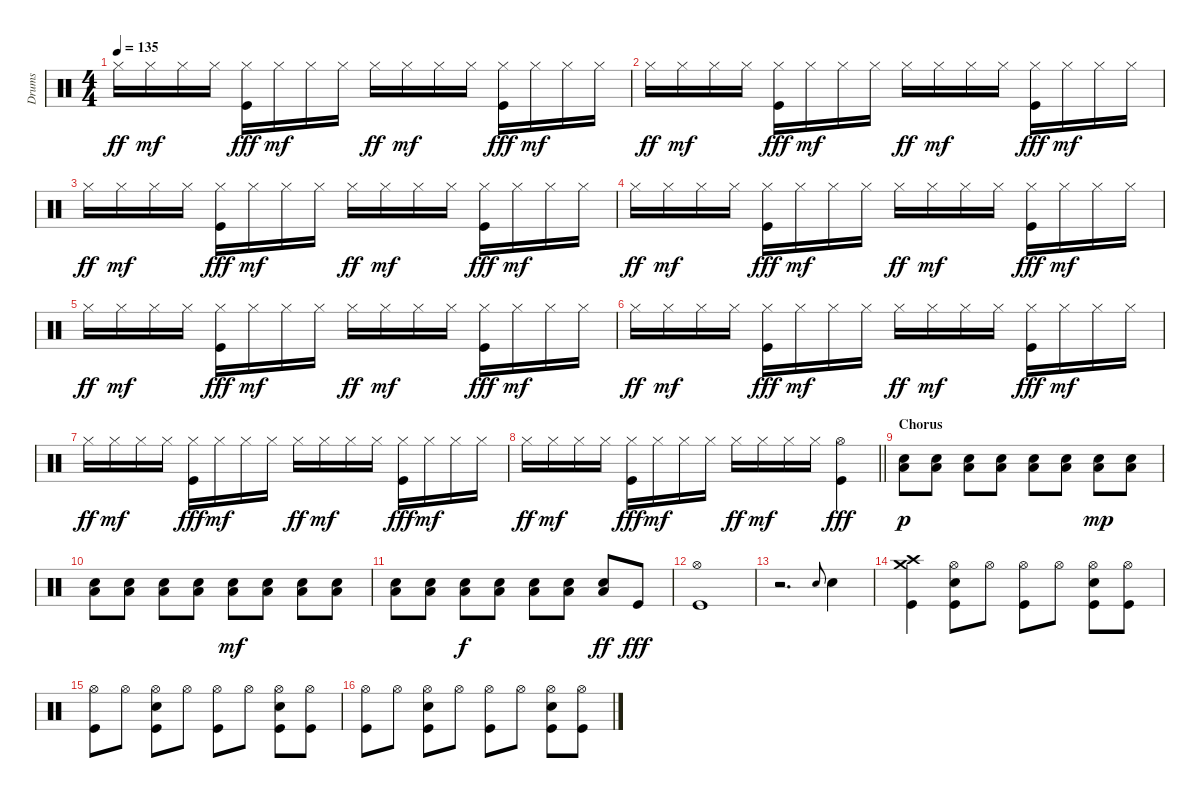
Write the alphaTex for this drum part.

\track ("Drums" "Drums") {instrument percussion}
\staff {score}
\articulation defaults
\ts (4 4)
\tempo 135
\clef neutral
\ks c "Hi-Hat (closed)".16{dy ff} "Hi-Hat (closed)".16{dy mf} "Hi-Hat (closed)".16 "Hi-Hat (closed)".16
("Hi-Hat (closed)" "Kick (hit)").16{dy fff} "Hi-Hat (closed)".16{dy mf} "Hi-Hat (closed)".16 "Hi-Hat (closed)".16 "Hi-Hat (closed)".16{dy ff} "Hi-Hat (closed)".16{dy mf} "Hi-Hat (closed)".16 "Hi-Hat (closed)".16 ("Hi-Hat (closed)" "Kick (hit)").16{dy fff} "Hi-Hat (closed)".16{dy mf} "Hi-Hat (closed)".16 "Hi-Hat (closed)".16 |
"Hi-Hat (closed)".16{dy ff} "Hi-Hat (closed)".16{dy mf} "Hi-Hat (closed)".16 "Hi-Hat (closed)".16 ("Hi-Hat (closed)" "Kick (hit)").16{dy fff} "Hi-Hat (closed)".16{dy mf} "Hi-Hat (closed)".16 "Hi-Hat (closed)".16 "Hi-Hat (closed)".16{dy ff} "Hi-Hat (closed)".16{dy mf} "Hi-Hat (closed)".16 "Hi-Hat (closed)".16 ("Hi-Hat (closed)" "Kick (hit)").16{dy fff} "Hi-Hat (closed)".16{dy mf} "Hi-Hat (closed)".16 "Hi-Hat (closed)".16 |
"Hi-Hat (closed)".16{dy ff} "Hi-Hat (closed)".16{dy mf} "Hi-Hat (closed)".16 "Hi-Hat (closed)".16 ("Hi-Hat (closed)" "Kick (hit)").16{dy fff} "Hi-Hat (closed)".16{dy mf} "Hi-Hat (closed)".16 "Hi-Hat (closed)".16 "Hi-Hat (closed)".16{dy ff} "Hi-Hat (closed)".16{dy mf} "Hi-Hat (closed)".16 "Hi-Hat (closed)".16 ("Hi-Hat (closed)" "Kick (hit)").16{dy fff} "Hi-Hat (closed)".16{dy mf} "Hi-Hat (closed)".16 "Hi-Hat (closed)".16 |
"Hi-Hat (closed)".16{dy ff} "Hi-Hat (closed)".16{dy mf} "Hi-Hat (closed)".16 "Hi-Hat (closed)".16 ("Hi-Hat (closed)" "Kick (hit)").16{dy fff} "Hi-Hat (closed)".16{dy mf} "Hi-Hat (closed)".16 "Hi-Hat (closed)".16 "Hi-Hat (closed)".16{dy ff} "Hi-Hat (closed)".16{dy mf} "Hi-Hat (closed)".16 "Hi-Hat (closed)".16 ("Hi-Hat (closed)" "Kick (hit)").16{dy fff} "Hi-Hat (closed)".16{dy mf} "Hi-Hat (closed)".16 "Hi-Hat (closed)".16 |
"Hi-Hat (closed)".16{dy ff} "Hi-Hat (closed)".16{dy mf} "Hi-Hat (closed)".16 "Hi-Hat (closed)".16 ("Hi-Hat (closed)" "Kick (hit)").16{dy fff} "Hi-Hat (closed)".16{dy mf} "Hi-Hat (closed)".16 "Hi-Hat (closed)".16 "Hi-Hat (closed)".16{dy ff} "Hi-Hat (closed)".16{dy mf} "Hi-Hat (closed)".16 "Hi-Hat (closed)".16 ("Hi-Hat (closed)" "Kick (hit)").16{dy fff} "Hi-Hat (closed)".16{dy mf} "Hi-Hat (closed)".16 "Hi-Hat (closed)".16 |
"Hi-Hat (closed)".16{dy ff} "Hi-Hat (closed)".16{dy mf} "Hi-Hat (closed)".16 "Hi-Hat (closed)".16 ("Hi-Hat (closed)" "Kick (hit)").16{dy fff} "Hi-Hat (closed)".16{dy mf} "Hi-Hat (closed)".16 "Hi-Hat (closed)".16 "Hi-Hat (closed)".16{dy ff} "Hi-Hat (closed)".16{dy mf} "Hi-Hat (closed)".16 "Hi-Hat (closed)".16 ("Hi-Hat (closed)" "Kick (hit)").16{dy fff} "Hi-Hat (closed)".16{dy mf} "Hi-Hat (closed)".16 "Hi-Hat (closed)".16 |
"Hi-Hat (closed)".16{dy ff} "Hi-Hat (closed)".16{dy mf} "Hi-Hat (closed)".16 "Hi-Hat (closed)".16 ("Hi-Hat (closed)" "Kick (hit)").16{dy fff} "Hi-Hat (closed)".16{dy mf} "Hi-Hat (closed)".16 "Hi-Hat (closed)".16 "Hi-Hat (closed)".16{dy ff} "Hi-Hat (closed)".16{dy mf} "Hi-Hat (closed)".16 "Hi-Hat (closed)".16 ("Hi-Hat (closed)" "Kick (hit)").16{dy fff} "Hi-Hat (closed)".16{dy mf} "Hi-Hat (closed)".16 "Hi-Hat (closed)".16 |
\barLineRight lightlight "Hi-Hat (closed)".16{dy ff} "Hi-Hat (closed)".16{dy mf} "Hi-Hat (closed)".16 "Hi-Hat (closed)".16
("Hi-Hat (closed)" "Kick (hit)").16{dy fff} "Hi-Hat (closed)".16{dy mf} "Hi-Hat (closed)".16 "Hi-Hat (closed)".16 "Hi-Hat (closed)".16{dy ff} "Hi-Hat (closed)".16{dy mf} "Hi-Hat (closed)".16 "Hi-Hat (closed)".16 ("Hi-Hat (open)" "Kick (hit)").4{dy fff} |
\section ("" "Chorus")
("Low Floor Tom (hit)" "Snare (hit) 2").8{dy p} ("Low Floor Tom (hit)" "Snare (hit) 2").8 ("Low Floor Tom (hit)" "Snare (hit) 2").8 ("Low Floor Tom (hit)" "Snare (hit) 2").8 ("Low Floor Tom (hit)" "Snare (hit) 2").8 ("Low Floor Tom (hit)" "Snare (hit) 2").8 ("Low Floor Tom (hit)" "Snare (hit) 2").8{dy mp} ("Low Floor Tom (hit)" "Snare (hit) 2").8 |
("Low Floor Tom (hit)" "Snare (hit) 2").8 ("Low Floor Tom (hit)" "Snare (hit) 2").8 ("Low Floor Tom (hit)" "Snare (hit) 2").8 ("Low Floor Tom (hit)" "Snare (hit) 2").8 ("Low Floor Tom (hit)" "Snare (hit) 2").8{dy mf} ("Low Floor Tom (hit)" "Snare (hit) 2").8 ("Low Floor Tom (hit)" "Snare (hit) 2").8 ("Low Floor Tom (hit)" "Snare (hit) 2").8 |
("Low Floor Tom (hit)" "Snare (hit) 2").8 ("Low Floor Tom (hit)" "Snare (hit) 2").8 ("Low Floor Tom (hit)" "Snare (hit) 2").8{dy f} ("Low Floor Tom (hit)" "Snare (hit) 2").8 ("Low Floor Tom (hit)" "Snare (hit) 2").8 ("Low Floor Tom (hit)" "Snare (hit) 2").8 ("Low Floor Tom (hit)" "Snare (hit) 2").8{dy ff} "Kick (hit)".8{dy fff} |
("Hi-Hat (open)" "Kick (hit)").1 |
r.2{d} "Snare (hit) 2".8{gr onbeat} "Snare (hit) 2".4 |
("Crash medium (hit)" "Crash high (hit)" "Kick (hit)").4 ("Hi-Hat (open)" "Snare (hit) 2" "Kick (hit)").8 "Hi-Hat (open)".8 ("Hi-Hat (open)" "Kick (hit)").8 "Hi-Hat (open)".8 ("Hi-Hat (open)" "Snare (hit) 2" "Kick (hit)").8 ("Hi-Hat (open)" "Kick (hit)").8 |
("Hi-Hat (open)" "Kick (hit)").8 "Hi-Hat (open)".8 ("Hi-Hat (open)" "Snare (hit) 2" "Kick (hit)").8 "Hi-Hat (open)".8 ("Hi-Hat (open)" "Kick (hit)").8 "Hi-Hat (open)".8 ("Hi-Hat (open)" "Snare (hit) 2" "Kick (hit)").8 ("Hi-Hat (open)" "Kick (hit)").8 |
("Hi-Hat (open)" "Kick (hit)").8 "Hi-Hat (open)".8 ("Hi-Hat (open)" "Snare (hit) 2" "Kick (hit)").8 "Hi-Hat (open)".8 ("Hi-Hat (open)" "Kick (hit)").8 "Hi-Hat (open)".8 ("Hi-Hat (open)" "Snare (hit) 2" "Kick (hit)").8 ("Hi-Hat (open)" "Kick (hit)").8
